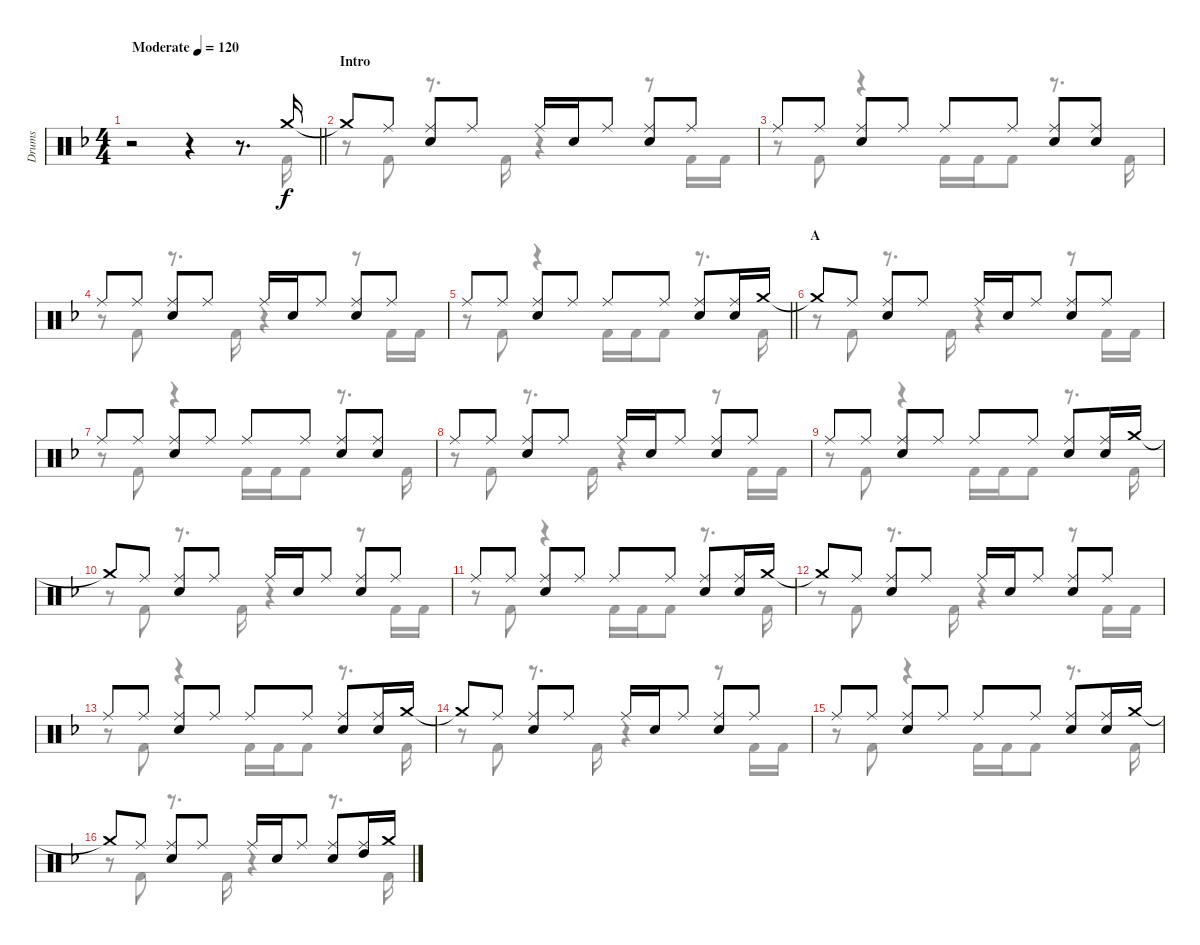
\track ("Drums" "Drums") {instrument percussion}
\staff {score}
\articulation defaults
\voice
\ts (4 4)
\tempo (120 "Moderate")
\clef neutral
\barLineRight lightlight
\ks f
r.2{dy f} r.4 r.8{d} "Crash medium (hit)".16 |
\section ("" "Intro")
"Crash medium (hit)"{t}.8 "Ride (middle)".8 ("Ride (middle)" "Snare (hit) 2").8 "Ride (middle)".8 "Ride (middle)".16 "Snare (hit) 2".16 "Ride (middle)".8 ("Ride (middle)" "Snare (hit) 2").8 "Ride (middle)".8 |
"Ride (middle)".8 "Ride (middle)".8 ("Ride (middle)" "Snare (hit) 2").8 "Ride (middle)".8 "Ride (middle)".8 "Ride (middle)".8 ("Ride (middle)" "Snare (hit) 2").8 ("Ride (middle)" "Snare (hit) 2").8 |
"Ride (middle)".8 "Ride (middle)".8 ("Ride (middle)" "Snare (hit) 2").8 "Ride (middle)".8 "Ride (middle)".16 "Snare (hit) 2".16 "Ride (middle)".8 ("Ride (middle)" "Snare (hit) 2").8 "Ride (middle)".8 |
\barLineRight lightlight "Ride (middle)".8 "Ride (middle)".8
("Ride (middle)" "Snare (hit) 2").8 "Ride (middle)".8 "Ride (middle)".8 "Ride (middle)".8 ("Ride (middle)" "Snare (hit) 2").8 ("Ride (middle)" "Snare (hit) 2").16 "Crash medium (hit)".16 |
\section ("" "A")
"Crash medium (hit)"{t}.8 "Ride (middle)".8 ("Ride (middle)" "Snare (hit) 2").8 "Ride (middle)".8 "Ride (middle)".16 "Snare (hit) 2".16 "Ride (middle)".8 ("Ride (middle)" "Snare (hit) 2").8 "Ride (middle)".8 |
"Ride (middle)".8 "Ride (middle)".8 ("Ride (middle)" "Snare (hit) 2").8 "Ride (middle)".8 "Ride (middle)".8 "Ride (middle)".8 ("Ride (middle)" "Snare (hit) 2").8 ("Ride (middle)" "Snare (hit) 2").8 |
"Ride (middle)".8 "Ride (middle)".8 ("Ride (middle)" "Snare (hit) 2").8 "Ride (middle)".8 "Ride (middle)".16 "Snare (hit) 2".16 "Ride (middle)".8 ("Ride (middle)" "Snare (hit) 2").8 "Ride (middle)".8 |
"Ride (middle)".8 "Ride (middle)".8 ("Ride (middle)" "Snare (hit) 2").8 "Ride (middle)".8 "Ride (middle)".8 "Ride (middle)".8 ("Ride (middle)" "Snare (hit) 2").8 ("Ride (middle)" "Snare (hit) 2").16 "Crash medium (hit)".16 |
"Crash medium (hit)"{t}.8 "Ride (middle)".8 ("Ride (middle)" "Snare (hit) 2").8 "Ride (middle)".8 "Ride (middle)".16 "Snare (hit) 2".16 "Ride (middle)".8 ("Ride (middle)" "Snare (hit) 2").8 "Ride (middle)".8 |
"Ride (middle)".8 "Ride (middle)".8 ("Ride (middle)" "Snare (hit) 2").8 "Ride (middle)".8 "Ride (middle)".8 "Ride (middle)".8 ("Ride (middle)" "Snare (hit) 2").8 ("Ride (middle)" "Snare (hit) 2").16 "Crash medium (hit)".16 |
"Crash medium (hit)"{t}.8 "Ride (middle)".8 ("Ride (middle)" "Snare (hit) 2").8 "Ride (middle)".8 "Ride (middle)".16 "Snare (hit) 2".16 "Ride (middle)".8 ("Ride (middle)" "Snare (hit) 2").8 "Ride (middle)".8 |
"Ride (middle)".8 "Ride (middle)".8 ("Ride (middle)" "Snare (hit) 2").8 "Ride (middle)".8 "Ride (middle)".8 "Ride (middle)".8 ("Ride (middle)" "Snare (hit) 2").8 ("Ride (middle)" "Snare (hit) 2").16 "Crash medium (hit)".16 |
"Crash medium (hit)"{t}.8 "Ride (middle)".8 ("Ride (middle)" "Snare (hit) 2").8 "Ride (middle)".8 "Ride (middle)".16 "Snare (hit) 2".16 "Ride (middle)".8 ("Ride (middle)" "Snare (hit) 2").8 "Ride (middle)".8 |
"Ride (middle)".8 "Ride (middle)".8 ("Ride (middle)" "Snare (hit) 2").8 "Ride (middle)".8 "Ride (middle)".8 "Ride (middle)".8 ("Ride (middle)" "Snare (hit) 2").8 ("Ride (middle)" "Snare (hit) 2").16 "Crash medium (hit)".16 |
"Crash medium (hit)"{t}.8 "Ride (middle)".8 ("Ride (middle)" "Snare (hit) 2").8 "Ride (middle)".8 "Ride (middle)".16 "Snare (hit) 2".16 "Ride (middle)".8 ("Ride (middle)" "Snare (hit) 2").8 ("Ride (middle)" "High Tom (hit)").16 "Crash medium (hit)".16
\voice
\clef neutral
\ottava regular
\simile none
\barLineRight lightlight
\ks f
r.2{dy f} r.4 r.8{d} "Kick (hit) 2".16 |
r.8 "Kick (hit) 2".8 r.8{d} "Kick (hit) 2".16 r.4 r.8 "Kick (hit) 2".16 "Kick (hit) 2".16 |
r.8 "Kick (hit) 2".8 r.4 "Kick (hit) 2".16 "Kick (hit) 2".16 "Kick (hit) 2".8 r.8{d} "Kick (hit) 2".16 |
r.8 "Kick (hit) 2".8 r.8{d} "Kick (hit) 2".16 r.4 r.8 "Kick (hit) 2".16 "Kick (hit) 2".16 |
\barLineRight lightlight
r.8 "Kick (hit) 2".8 r.4 "Kick (hit) 2".16 "Kick (hit) 2".16 "Kick (hit) 2".8 r.8{d} "Kick (hit) 2".16 |
r.8 "Kick (hit) 2".8 r.8{d} "Kick (hit) 2".16 r.4 r.8 "Kick (hit) 2".16 "Kick (hit) 2".16 |
r.8 "Kick (hit) 2".8 r.4 "Kick (hit) 2".16 "Kick (hit) 2".16 "Kick (hit) 2".8 r.8{d} "Kick (hit) 2".16 |
r.8 "Kick (hit) 2".8 r.8{d} "Kick (hit) 2".16 r.4 r.8 "Kick (hit) 2".16 "Kick (hit) 2".16 |
r.8 "Kick (hit) 2".8 r.4 "Kick (hit) 2".16 "Kick (hit) 2".16 "Kick (hit) 2".8 r.8{d} "Kick (hit) 2".16 |
r.8 "Kick (hit) 2".8 r.8{d} "Kick (hit) 2".16 r.4 r.8 "Kick (hit) 2".16 "Kick (hit) 2".16 |
r.8 "Kick (hit) 2".8 r.4 "Kick (hit) 2".16 "Kick (hit) 2".16 "Kick (hit) 2".8 r.8{d} "Kick (hit) 2".16 |
r.8 "Kick (hit) 2".8 r.8{d} "Kick (hit) 2".16 r.4 r.8 "Kick (hit) 2".16 "Kick (hit) 2".16 |
r.8 "Kick (hit) 2".8 r.4 "Kick (hit) 2".16 "Kick (hit) 2".16 "Kick (hit) 2".8 r.8{d} "Kick (hit) 2".16 |
r.8 "Kick (hit) 2".8 r.8{d} "Kick (hit) 2".16 r.4 r.8 "Kick (hit) 2".16 "Kick (hit) 2".16 |
r.8 "Kick (hit) 2".8 r.4 "Kick (hit) 2".16 "Kick (hit) 2".16 "Kick (hit) 2".8 r.8{d} "Kick (hit) 2".16 |
r.8 "Kick (hit) 2".8 r.8{d} "Kick (hit) 2".16 r.4 r.8{d} "Kick (hit) 2".16
